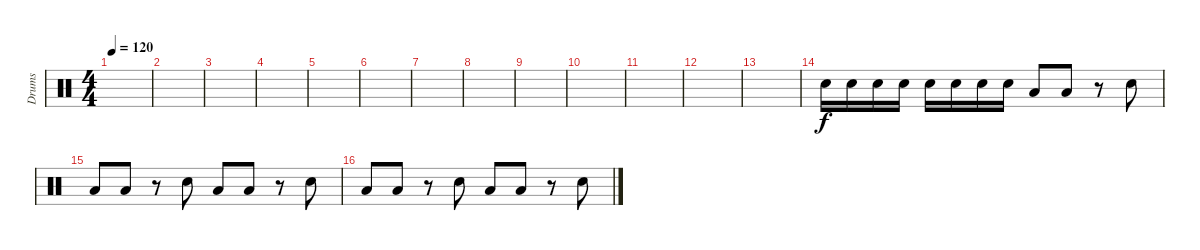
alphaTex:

\track ("Drums" "Drums") {instrument percussion}
\staff {score}
\articulation defaults
\ts (4 4)
\tempo 120
\clef neutral
\ks c
|
|
|
|
|
|
|
|
|
|
|
|
|
"Electric Snare (hit)".16 "Electric Snare (hit)".16 "Electric Snare (hit)".16 "Electric Snare (hit)".16 "Electric Snare (hit)".16 "Electric Snare (hit)".16 "Electric Snare (hit)".16 "Electric Snare (hit)".16 "Low Tom (hit)".8 "Low Tom (hit)".8 r.8 "Electric Snare (hit)".8 |
"Low Tom (hit)".8 "Low Tom (hit)".8 r.8 "Electric Snare (hit)".8 "Low Tom (hit)".8 "Low Tom (hit)".8 r.8 "Electric Snare (hit)".8 |
"Low Tom (hit)".8 "Low Tom (hit)".8 r.8 "Electric Snare (hit)".8 "Low Tom (hit)".8 "Low Tom (hit)".8 r.8 "Electric Snare (hit)".8
